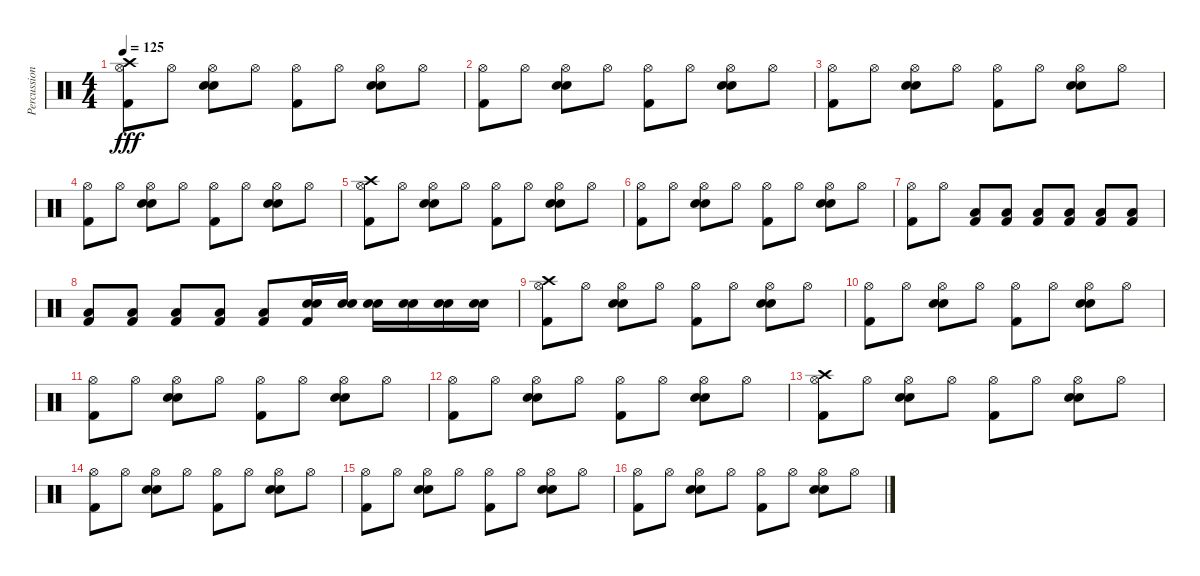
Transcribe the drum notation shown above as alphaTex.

\track ("Percussion" "Percussion") {instrument percussion}
\staff {score}
\articulation defaults
\ts (4 4)
\tempo 125
\clef neutral
\ks c
("Crash high (hit)" "Hi-Hat (open)" "Kick (hit) 2").8{dy fff} "Hi-Hat (open)".8 ("Electric Snare (hit)" "Snare (hit) 2" "Hi-Hat (open)").8 "Hi-Hat (open)".8 ("Hi-Hat (open)" "Kick (hit) 2").8 "Hi-Hat (open)".8 ("Electric Snare (hit)" "Snare (hit) 2" "Hi-Hat (open)").8 "Hi-Hat (open)".8 |
("Hi-Hat (open)" "Kick (hit) 2").8 "Hi-Hat (open)".8 ("Electric Snare (hit)" "Snare (hit) 2" "Hi-Hat (open)").8 "Hi-Hat (open)".8 ("Hi-Hat (open)" "Kick (hit) 2").8 "Hi-Hat (open)".8 ("Electric Snare (hit)" "Snare (hit) 2" "Hi-Hat (open)").8 "Hi-Hat (open)".8 |
("Hi-Hat (open)" "Kick (hit) 2").8 "Hi-Hat (open)".8 ("Electric Snare (hit)" "Snare (hit) 2" "Hi-Hat (open)").8 "Hi-Hat (open)".8 ("Hi-Hat (open)" "Kick (hit) 2").8 "Hi-Hat (open)".8 ("Electric Snare (hit)" "Snare (hit) 2" "Hi-Hat (open)").8 "Hi-Hat (open)".8 |
("Hi-Hat (open)" "Kick (hit) 2").8 "Hi-Hat (open)".8 ("Electric Snare (hit)" "Snare (hit) 2" "Hi-Hat (open)").8 "Hi-Hat (open)".8 ("Hi-Hat (open)" "Kick (hit) 2").8 "Hi-Hat (open)".8 ("Electric Snare (hit)" "Snare (hit) 2" "Hi-Hat (open)").8 "Hi-Hat (open)".8 |
("Crash high (hit)" "Hi-Hat (open)" "Kick (hit) 2").8 "Hi-Hat (open)".8 ("Electric Snare (hit)" "Snare (hit) 2" "Hi-Hat (open)").8 "Hi-Hat (open)".8 ("Hi-Hat (open)" "Kick (hit) 2").8 "Hi-Hat (open)".8 ("Electric Snare (hit)" "Snare (hit) 2" "Hi-Hat (open)").8 "Hi-Hat (open)".8 |
("Hi-Hat (open)" "Kick (hit) 2").8 "Hi-Hat (open)".8 ("Electric Snare (hit)" "Snare (hit) 2" "Hi-Hat (open)").8 "Hi-Hat (open)".8 ("Hi-Hat (open)" "Kick (hit) 2").8 "Hi-Hat (open)".8 ("Electric Snare (hit)" "Snare (hit) 2" "Hi-Hat (open)").8 "Hi-Hat (open)".8 |
("Hi-Hat (open)" "Kick (hit) 2").8 "Hi-Hat (open)".8 ("Low Floor Tom (hit)" "Kick (hit) 2").8 ("Low Floor Tom (hit)" "Kick (hit) 2").8 ("Low Floor Tom (hit)" "Kick (hit) 2").8 ("Low Floor Tom (hit)" "Kick (hit) 2").8 ("Low Floor Tom (hit)" "Kick (hit) 2").8 ("Low Floor Tom (hit)" "Kick (hit) 2").8 |
("Low Floor Tom (hit)" "Kick (hit) 2").8 ("Low Floor Tom (hit)" "Kick (hit) 2").8 ("Low Floor Tom (hit)" "Kick (hit) 2").8 ("Low Floor Tom (hit)" "Kick (hit) 2").8 ("Low Floor Tom (hit)" "Kick (hit) 2").8 ("Electric Snare (hit)" "Snare (hit) 2" "Kick (hit) 2").16 ("Electric Snare (hit)" "Snare (hit) 2").16 ("Electric Snare (hit)" "Snare (hit) 2").16 ("Electric Snare (hit)" "Snare (hit) 2").16 ("Electric Snare (hit)" "Snare (hit) 2").16 ("Electric Snare (hit)" "Snare (hit) 2").16 |
("Crash high (hit)" "Hi-Hat (open)" "Kick (hit) 2").8 "Hi-Hat (open)".8 ("Electric Snare (hit)" "Snare (hit) 2" "Hi-Hat (open)").8 "Hi-Hat (open)".8 ("Hi-Hat (open)" "Kick (hit) 2").8 "Hi-Hat (open)".8 ("Electric Snare (hit)" "Snare (hit) 2" "Hi-Hat (open)").8 "Hi-Hat (open)".8 |
("Hi-Hat (open)" "Kick (hit) 2").8 "Hi-Hat (open)".8 ("Electric Snare (hit)" "Snare (hit) 2" "Hi-Hat (open)").8 "Hi-Hat (open)".8 ("Hi-Hat (open)" "Kick (hit) 2").8 "Hi-Hat (open)".8 ("Electric Snare (hit)" "Snare (hit) 2" "Hi-Hat (open)").8 "Hi-Hat (open)".8 |
("Hi-Hat (open)" "Kick (hit) 2").8 "Hi-Hat (open)".8 ("Electric Snare (hit)" "Snare (hit) 2" "Hi-Hat (open)").8 "Hi-Hat (open)".8 ("Hi-Hat (open)" "Kick (hit) 2").8 "Hi-Hat (open)".8 ("Electric Snare (hit)" "Snare (hit) 2" "Hi-Hat (open)").8 "Hi-Hat (open)".8 |
("Hi-Hat (open)" "Kick (hit) 2").8 "Hi-Hat (open)".8 ("Electric Snare (hit)" "Snare (hit) 2" "Hi-Hat (open)").8 "Hi-Hat (open)".8 ("Hi-Hat (open)" "Kick (hit) 2").8 "Hi-Hat (open)".8 ("Electric Snare (hit)" "Snare (hit) 2" "Hi-Hat (open)").8 "Hi-Hat (open)".8 |
("Crash high (hit)" "Hi-Hat (open)" "Kick (hit) 2").8 "Hi-Hat (open)".8 ("Electric Snare (hit)" "Snare (hit) 2" "Hi-Hat (open)").8 "Hi-Hat (open)".8 ("Hi-Hat (open)" "Kick (hit) 2").8 "Hi-Hat (open)".8 ("Electric Snare (hit)" "Snare (hit) 2" "Hi-Hat (open)").8 "Hi-Hat (open)".8 |
("Hi-Hat (open)" "Kick (hit) 2").8 "Hi-Hat (open)".8 ("Electric Snare (hit)" "Snare (hit) 2" "Hi-Hat (open)").8 "Hi-Hat (open)".8 ("Hi-Hat (open)" "Kick (hit) 2").8 "Hi-Hat (open)".8 ("Electric Snare (hit)" "Snare (hit) 2" "Hi-Hat (open)").8 "Hi-Hat (open)".8 |
("Hi-Hat (open)" "Kick (hit) 2").8 "Hi-Hat (open)".8 ("Electric Snare (hit)" "Snare (hit) 2" "Hi-Hat (open)").8 "Hi-Hat (open)".8 ("Hi-Hat (open)" "Kick (hit) 2").8 "Hi-Hat (open)".8 ("Electric Snare (hit)" "Snare (hit) 2" "Hi-Hat (open)").8 "Hi-Hat (open)".8 |
("Hi-Hat (open)" "Kick (hit) 2").8 "Hi-Hat (open)".8 ("Electric Snare (hit)" "Snare (hit) 2" "Hi-Hat (open)").8 "Hi-Hat (open)".8 ("Hi-Hat (open)" "Kick (hit) 2").8 "Hi-Hat (open)".8 ("Electric Snare (hit)" "Snare (hit) 2" "Hi-Hat (open)").8 "Hi-Hat (open)".8
